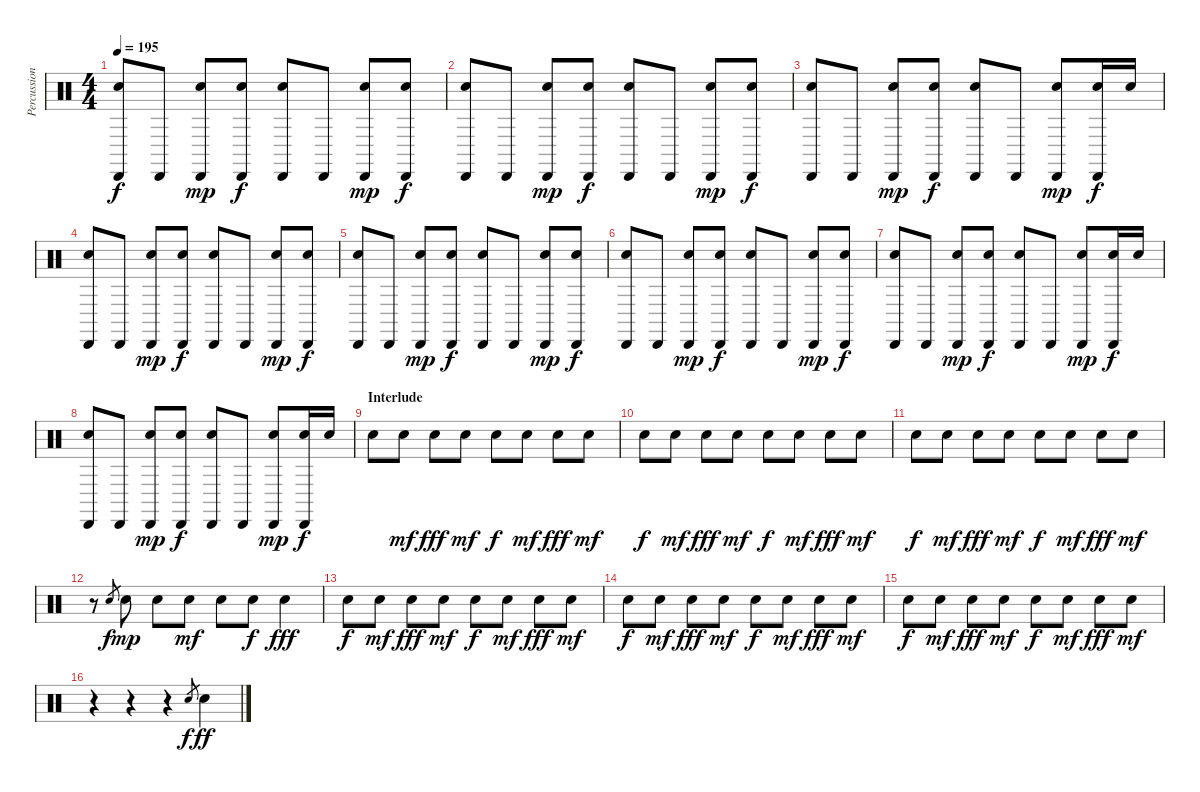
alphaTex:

\track ("Percussion" "Percussion") {instrument percussion}
\staff {score}
\articulation defaults
\ts (4 4)
\tempo 195
\clef neutral
\ks c
("Cabasa (hit)" "Snare (hit) 2").8{dy f} "Cabasa (hit)".8 ("Cabasa (hit)" "Snare (hit) 2").8{dy mp} ("Cabasa (hit)" "Snare (hit) 2").8{dy f} ("Cabasa (hit)" "Snare (hit) 2").8 "Cabasa (hit)".8 ("Cabasa (hit)" "Snare (hit) 2").8{dy mp} ("Cabasa (hit)" "Snare (hit) 2").8{dy f} |
("Cabasa (hit)" "Snare (hit) 2").8 "Cabasa (hit)".8 ("Cabasa (hit)" "Snare (hit) 2").8{dy mp} ("Cabasa (hit)" "Snare (hit) 2").8{dy f} ("Cabasa (hit)" "Snare (hit) 2").8 "Cabasa (hit)".8 ("Cabasa (hit)" "Snare (hit) 2").8{dy mp} ("Cabasa (hit)" "Snare (hit) 2").8{dy f} |
("Cabasa (hit)" "Snare (hit) 2").8 "Cabasa (hit)".8 ("Cabasa (hit)" "Snare (hit) 2").8{dy mp} ("Cabasa (hit)" "Snare (hit) 2").8{dy f} ("Cabasa (hit)" "Snare (hit) 2").8 "Cabasa (hit)".8 ("Cabasa (hit)" "Snare (hit) 2").8{dy mp} ("Cabasa (hit)" "Snare (hit) 2").16{dy f} "Snare (hit) 2".16 |
("Cabasa (hit)" "Snare (hit) 2").8 "Cabasa (hit)".8 ("Cabasa (hit)" "Snare (hit) 2").8{dy mp} ("Cabasa (hit)" "Snare (hit) 2").8{dy f} ("Cabasa (hit)" "Snare (hit) 2").8 "Cabasa (hit)".8 ("Cabasa (hit)" "Snare (hit) 2").8{dy mp} ("Cabasa (hit)" "Snare (hit) 2").8{dy f} |
("Cabasa (hit)" "Snare (hit) 2").8 "Cabasa (hit)".8 ("Cabasa (hit)" "Snare (hit) 2").8{dy mp} ("Cabasa (hit)" "Snare (hit) 2").8{dy f} ("Cabasa (hit)" "Snare (hit) 2").8 "Cabasa (hit)".8 ("Cabasa (hit)" "Snare (hit) 2").8{dy mp} ("Cabasa (hit)" "Snare (hit) 2").8{dy f} |
("Cabasa (hit)" "Snare (hit) 2").8 "Cabasa (hit)".8 ("Cabasa (hit)" "Snare (hit) 2").8{dy mp} ("Cabasa (hit)" "Snare (hit) 2").8{dy f} ("Cabasa (hit)" "Snare (hit) 2").8 "Cabasa (hit)".8 ("Cabasa (hit)" "Snare (hit) 2").8{dy mp} ("Cabasa (hit)" "Snare (hit) 2").8{dy f} |
("Cabasa (hit)" "Snare (hit) 2").8 "Cabasa (hit)".8 ("Cabasa (hit)" "Snare (hit) 2").8{dy mp} ("Cabasa (hit)" "Snare (hit) 2").8{dy f} ("Cabasa (hit)" "Snare (hit) 2").8 "Cabasa (hit)".8 ("Cabasa (hit)" "Snare (hit) 2").8{dy mp} ("Cabasa (hit)" "Snare (hit) 2").16{dy f} "Snare (hit) 2".16 |
("Cabasa (hit)" "Snare (hit) 2").8 "Cabasa (hit)".8 ("Cabasa (hit)" "Snare (hit) 2").8{dy mp} ("Cabasa (hit)" "Snare (hit) 2").8{dy f} ("Cabasa (hit)" "Snare (hit) 2").8 "Cabasa (hit)".8 ("Cabasa (hit)" "Snare (hit) 2").8{dy mp} ("Cabasa (hit)" "Snare (hit) 2").16{dy f} "Snare (hit) 2".16 |
\section ("" "Interlude")
"Snare (hit) 2".8 "Snare (hit) 2".8{dy mf} "Snare (hit) 2".8{dy fff} "Snare (hit) 2".8{dy mf} "Snare (hit) 2".8{dy f} "Snare (hit) 2".8{dy mf} "Snare (hit) 2".8{dy fff} "Snare (hit) 2".8{dy mf} |
"Snare (hit) 2".8{dy f} "Snare (hit) 2".8{dy mf} "Snare (hit) 2".8{dy fff} "Snare (hit) 2".8{dy mf} "Snare (hit) 2".8{dy f} "Snare (hit) 2".8{dy mf} "Snare (hit) 2".8{dy fff} "Snare (hit) 2".8{dy mf} |
"Snare (hit) 2".8{dy f} "Snare (hit) 2".8{dy mf} "Snare (hit) 2".8{dy fff} "Snare (hit) 2".8{dy mf} "Snare (hit) 2".8{dy f} "Snare (hit) 2".8{dy mf} "Snare (hit) 2".8{dy fff} "Snare (hit) 2".8{dy mf} |
r.8 "Snare (hit) 2".8{gr dy f} "Snare (hit) 2".8{dy mp} "Snare (hit) 2".8 "Snare (hit) 2".8{dy mf} "Snare (hit) 2".8 "Snare (hit) 2".8{dy f} "Snare (hit) 2".4{dy fff} |
"Snare (hit) 2".8{dy f} "Snare (hit) 2".8{dy mf} "Snare (hit) 2".8{dy fff} "Snare (hit) 2".8{dy mf} "Snare (hit) 2".8{dy f} "Snare (hit) 2".8{dy mf} "Snare (hit) 2".8{dy fff} "Snare (hit) 2".8{dy mf} |
"Snare (hit) 2".8{dy f} "Snare (hit) 2".8{dy mf} "Snare (hit) 2".8{dy fff} "Snare (hit) 2".8{dy mf} "Snare (hit) 2".8{dy f} "Snare (hit) 2".8{dy mf} "Snare (hit) 2".8{dy fff} "Snare (hit) 2".8{dy mf} |
"Snare (hit) 2".8{dy f} "Snare (hit) 2".8{dy mf} "Snare (hit) 2".8{dy fff} "Snare (hit) 2".8{dy mf} "Snare (hit) 2".8{dy f} "Snare (hit) 2".8{dy mf} "Snare (hit) 2".8{dy fff} "Snare (hit) 2".8{dy mf} |
r.4 r.4 r.4 "Snare (hit) 2".8{gr dy f} "Snare (hit) 2".4{dy ff}
